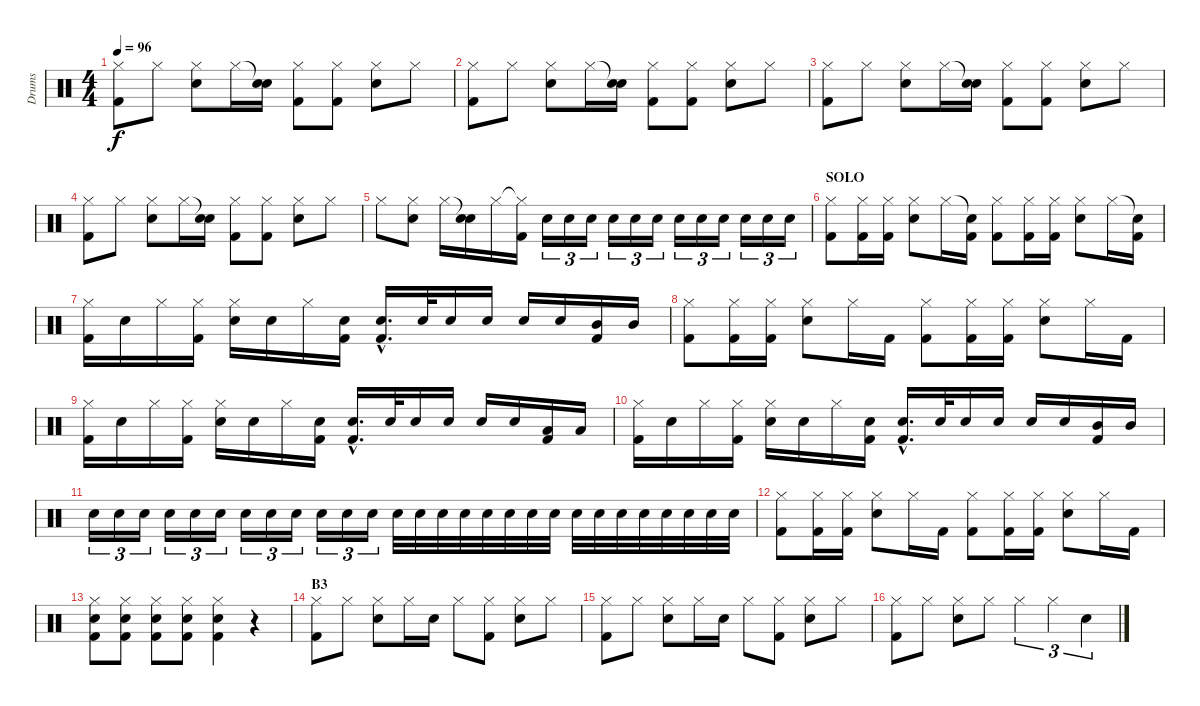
\track ("Drums" "Drums") {instrument percussion}
\staff {score}
\articulation defaults
\ts (4 4)
\tempo 96
\clef neutral
\ks c
("Hi-Hat (closed)" "Kick (hit) 2").8{dy f} "Hi-Hat (closed)".8 ("Hi-Hat (closed)" "Snare (hit) 2").8 "Hi-Hat (closed)".16 ("Snare (hit)"{t} "Snare (hit) 2").16 ("Hi-Hat (closed)" "Kick (hit) 2").8 ("Hi-Hat (closed)" "Kick (hit) 2").8 ("Hi-Hat (closed)" "Snare (hit) 2").8 "Hi-Hat (closed)".8 |
("Hi-Hat (closed)" "Kick (hit) 2").8 "Hi-Hat (closed)".8 ("Hi-Hat (closed)" "Snare (hit) 2").8 "Hi-Hat (closed)".16 ("Snare (hit)"{t} "Snare (hit) 2").16 ("Hi-Hat (closed)" "Kick (hit) 2").8 ("Hi-Hat (closed)" "Kick (hit) 2").8 ("Hi-Hat (closed)" "Snare (hit) 2").8 "Hi-Hat (closed)".8 |
("Hi-Hat (closed)" "Kick (hit) 2").8 "Hi-Hat (closed)".8 ("Hi-Hat (closed)" "Snare (hit) 2").8 "Hi-Hat (closed)".16 ("Snare (hit)"{t} "Snare (hit) 2").16 ("Hi-Hat (closed)" "Kick (hit) 2").8 ("Hi-Hat (closed)" "Kick (hit) 2").8 ("Hi-Hat (closed)" "Snare (hit) 2").8 "Hi-Hat (closed)".8 |
("Hi-Hat (closed)" "Kick (hit) 2").8 "Hi-Hat (closed)".8 ("Hi-Hat (closed)" "Snare (hit) 2").8 "Hi-Hat (closed)".16 ("Snare (hit)"{t} "Snare (hit) 2").16 ("Hi-Hat (closed)" "Kick (hit) 2").8 ("Hi-Hat (closed)" "Kick (hit) 2").8 ("Hi-Hat (closed)" "Snare (hit) 2").8 "Hi-Hat (closed)".8 |
"Hi-Hat (closed)".8 ("Hi-Hat (closed)" "Snare (hit) 2").8 "Hi-Hat (closed)".16 ("Snare (hit)"{t} "Snare (hit) 2").16 "Hi-Hat (closed)".16 ("Hi-Hat (closed)"{t} "Kick (hit) 2").16 "Snare (hit) 2".16{tu (3 2)} "Snare (hit) 2".16{tu (3 2)} "Snare (hit) 2".16{tu (3 2)} "Snare (hit) 2".16{tu (3 2)} "Snare (hit) 2".16{tu (3 2)} "Snare (hit) 2".16{tu (3 2)} "Snare (hit) 2".16{tu (3 2)} "Snare (hit) 2".16{tu (3 2)} "Snare (hit) 2".16{tu (3 2)} "Snare (hit) 2".16{tu (3 2)} "Snare (hit) 2".16{tu (3 2)} "Snare (hit) 2".16{tu (3 2)} |
\section ("" "SOLO")
("Hi-Hat (closed)" "Kick (hit) 2").8 ("Hi-Hat (closed)" "Kick (hit) 2").16 ("Hi-Hat (closed)" "Kick (hit) 2").16 ("Hi-Hat (closed)" "Snare (hit) 2").8 "Hi-Hat (closed)".16 ("Snare (hit)"{t} "Kick (hit) 2").16 ("Hi-Hat (closed)" "Kick (hit) 2").8 ("Hi-Hat (closed)" "Kick (hit) 2").16 ("Hi-Hat (closed)" "Kick (hit) 2").16 ("Hi-Hat (closed)" "Snare (hit) 2").8 "Hi-Hat (closed)".16 ("Snare (hit)"{t} "Kick (hit) 2").16 |
("Hi-Hat (closed)" "Kick (hit) 2").16 "Snare (hit) 2".16 "Hi-Hat (closed)".16 ("Hi-Hat (closed)" "Kick (hit) 2").16 ("Hi-Hat (closed)" "Snare (hit) 2").16 "Snare (hit) 2".16 "Hi-Hat (closed)".16 ("Snare (hit) 2" "Kick (hit) 2").16 ("Snare (hit) 2"{hac} "Kick (hit) 2"{hac}).16{d} "Snare (hit) 2".32 "Snare (hit) 2".16 "Snare (hit) 2".16 "Snare (hit) 2".16 "Snare (hit) 2".16 ("Mid Tom (hit)" "Kick (hit) 2").16 "Mid Tom (hit)".16 |
("Hi-Hat (closed)" "Kick (hit) 2").8 ("Hi-Hat (closed)" "Kick (hit) 2").16 ("Hi-Hat (closed)" "Kick (hit) 2").16 ("Hi-Hat (closed)" "Snare (hit) 2").8 "Hi-Hat (closed)".16 "Kick (hit) 2".16 ("Hi-Hat (closed)" "Kick (hit) 2").8 ("Hi-Hat (closed)" "Kick (hit) 2").16 ("Hi-Hat (closed)" "Kick (hit) 2").16 ("Hi-Hat (closed)" "Snare (hit) 2").8 "Hi-Hat (closed)".16 "Kick (hit) 2".16 |
("Hi-Hat (closed)" "Kick (hit) 2").16 "Snare (hit) 2".16 "Hi-Hat (closed)".16 ("Hi-Hat (closed)" "Kick (hit) 2").16 ("Hi-Hat (closed)" "Snare (hit) 2").16 "Snare (hit) 2".16 "Hi-Hat (closed)".16 ("Snare (hit) 2" "Kick (hit) 2").16 ("Snare (hit) 2"{hac} "Kick (hit) 2"{hac}).16{d} "Snare (hit) 2".32 "Snare (hit) 2".16 "Snare (hit) 2".16 "Snare (hit) 2".16 "Snare (hit) 2".16 ("Low Tom (hit)" "Kick (hit) 2").16 "Low Tom (hit)".16 |
("Hi-Hat (closed)" "Kick (hit) 2").16 "Snare (hit) 2".16 "Hi-Hat (closed)".16 ("Hi-Hat (closed)" "Kick (hit) 2").16 ("Hi-Hat (closed)" "Snare (hit) 2").16 "Snare (hit) 2".16 "Hi-Hat (closed)".16 ("Snare (hit) 2" "Kick (hit) 2").16 ("Snare (hit) 2"{hac} "Kick (hit) 2"{hac}).16{d} "Snare (hit) 2".32 "Snare (hit) 2".16 "Snare (hit) 2".16 "Snare (hit) 2".16 "Snare (hit) 2".16 ("Mid Tom (hit)" "Kick (hit) 2").16 "Mid Tom (hit)".16 |
"Snare (hit) 2".16{tu (3 2)} "Snare (hit) 2".16{tu (3 2)} "Snare (hit) 2".16{tu (3 2)} "Snare (hit) 2".16{tu (3 2)} "Snare (hit) 2".16{tu (3 2)} "Snare (hit) 2".16{tu (3 2)} "Snare (hit) 2".16{tu (3 2)} "Snare (hit) 2".16{tu (3 2)} "Snare (hit) 2".16{tu (3 2)} "Snare (hit) 2".16{tu (3 2)} "Snare (hit) 2".16{tu (3 2)} "Snare (hit) 2".16{tu (3 2)} "Snare (hit) 2".32 "Snare (hit) 2".32 "Snare (hit) 2".32 "Snare (hit) 2".32 "Snare (hit) 2".32 "Snare (hit) 2".32 "Snare (hit) 2".32 "Snare (hit) 2".32 "Snare (hit) 2".32 "Snare (hit) 2".32 "Snare (hit) 2".32 "Snare (hit) 2".32 "Snare (hit) 2".32 "Snare (hit) 2".32 "Snare (hit) 2".32 "Snare (hit) 2".32 |
("Hi-Hat (closed)" "Kick (hit) 2").8 ("Hi-Hat (closed)" "Kick (hit) 2").16 ("Hi-Hat (closed)" "Kick (hit) 2").16 ("Hi-Hat (closed)" "Snare (hit) 2").8 "Hi-Hat (closed)".16 "Kick (hit) 2".16 ("Hi-Hat (closed)" "Kick (hit) 2").8 ("Hi-Hat (closed)" "Kick (hit) 2").16 ("Hi-Hat (closed)" "Kick (hit) 2").16 ("Hi-Hat (closed)" "Snare (hit) 2").8 "Hi-Hat (closed)".16 "Kick (hit) 2".16 |
("Hi-Hat (closed)" "Snare (hit) 2" "Kick (hit) 2").8 ("Hi-Hat (closed)" "Snare (hit) 2" "Kick (hit) 2").8 ("Hi-Hat (closed)" "Snare (hit) 2" "Kick (hit) 2").8 ("Hi-Hat (closed)" "Snare (hit) 2" "Kick (hit) 2").8 ("Hi-Hat (closed)" "Snare (hit) 2" "Kick (hit) 2").4 r.4 |
\section ("" "B3")
("Hi-Hat (closed)" "Kick (hit) 2").8 "Hi-Hat (closed)".8 ("Hi-Hat (closed)" "Snare (hit) 2").8 "Hi-Hat (closed)".16 "Snare (hit) 2".16 "Hi-Hat (closed)".8 ("Hi-Hat (closed)" "Kick (hit) 2").8 ("Hi-Hat (closed)" "Snare (hit) 2").8 "Hi-Hat (closed)".8 |
("Hi-Hat (closed)" "Kick (hit) 2").8 "Hi-Hat (closed)".8 ("Hi-Hat (closed)" "Snare (hit) 2").8 "Hi-Hat (closed)".16 "Snare (hit) 2".16 "Hi-Hat (closed)".8 ("Hi-Hat (closed)" "Kick (hit) 2").8 ("Hi-Hat (closed)" "Snare (hit) 2").8 "Hi-Hat (closed)".8 |
("Hi-Hat (closed)" "Kick (hit) 2").8 "Hi-Hat (closed)".8 ("Hi-Hat (closed)" "Snare (hit) 2").8 "Hi-Hat (closed)".8 "Hi-Hat (closed)".4{tu (3 2)} "Hi-Hat (closed)".4{tu (3 2)} "Snare (hit) 2".4{tu (3 2)}
